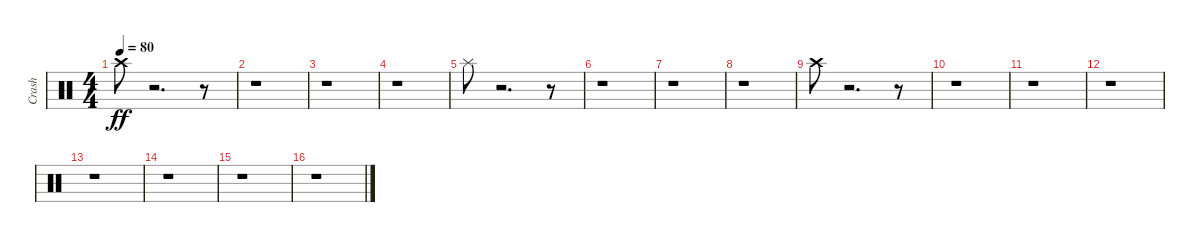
\track ("Crash" "Crash") {instrument percussion}
\staff {score}
\articulation defaults
\ts (4 4)
\tempo 80
\clef neutral
\ks c "Crash high (hit)".8{dy ff}
r.2{d} r.8 |
r.1 |
r.1 |
r.1 |
"Splash (hit)".8 r.2{d} r.8 |
r.1 |
r.1 |
r.1 |
"Crash high (hit)".8 r.2{d} r.8 |
r.1 |
r.1 |
r.1 |
r.1 |
r.1 |
r.1 |
r.1
